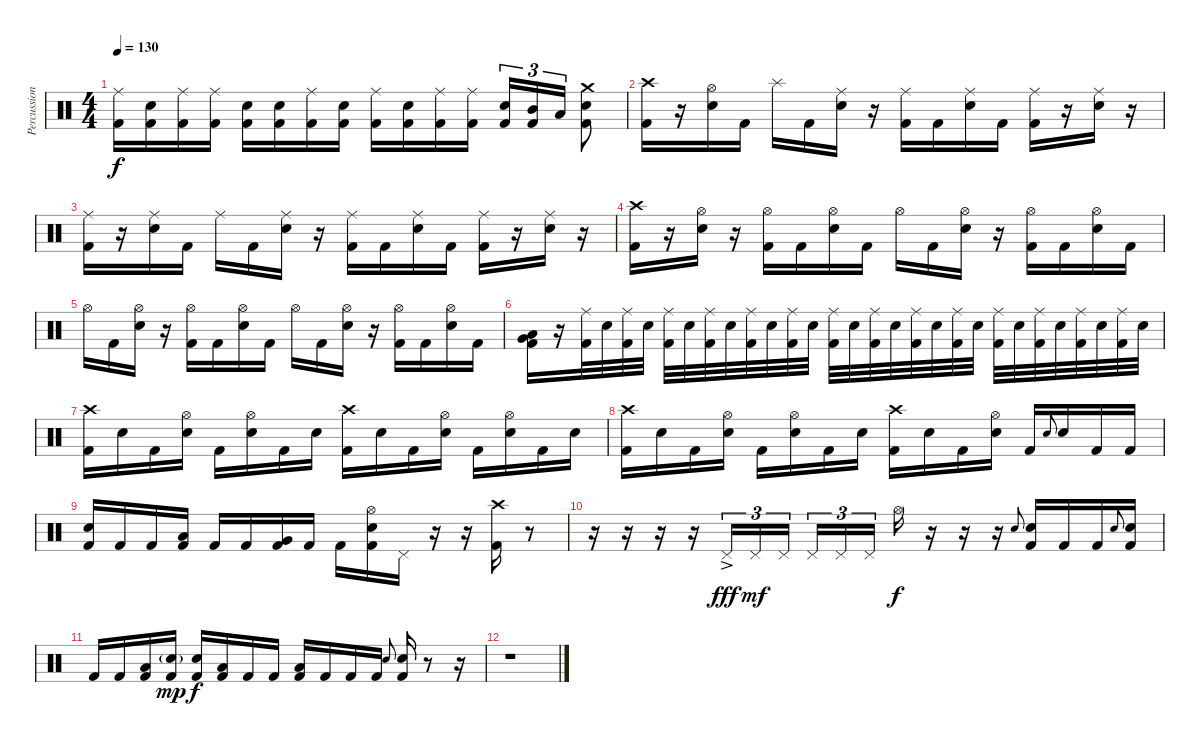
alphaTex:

\track ("Percussions" "Percussion") {instrument percussion}
\staff {score}
\articulation defaults
\ts (4 4)
\tempo 130
\clef neutral
\ks c
("Ride (middle)" "Kick (hit) 2").16{dy f} ("Electric Snare (hit)" "Kick (hit) 2").16 ("Ride (middle)" "Kick (hit) 2").16 ("Ride (middle)" "Kick (hit) 2").16 ("Electric Snare (hit)" "Kick (hit) 2").16 ("Electric Snare (hit)" "Kick (hit) 2").16 ("Ride (middle)" "Kick (hit) 2").16 ("Electric Snare (hit)" "Kick (hit) 2").16 ("Ride (middle)" "Kick (hit) 2").16 ("Electric Snare (hit)" "Kick (hit) 2").16 ("Ride (middle)" "Kick (hit) 2").16 ("Ride (middle)" "Kick (hit) 2").16 ("Electric Snare (hit)" "Kick (hit) 2").16{tu (3 2)} ("Mid Tom (hit)" "Kick (hit) 2").16{tu (3 2)} "Low Tom (hit)".16{tu (3 2)} ("Crash medium (hit)" "Electric Snare (hit)" "Kick (hit) 2").8 |
("Crash high (hit)" "Kick (hit) 2").16 r.16 ("Hi-Hat (open)" "Electric Snare (hit)").16 "Kick (hit) 2".16 "Splash (hit)".16 "Kick (hit) 2".16 ("Ride (middle)" "Electric Snare (hit)").16 r.16 ("Ride (middle)" "Kick (hit) 2").16 "Kick (hit) 2".16 ("Ride (middle)" "Electric Snare (hit)").16 "Kick (hit) 2".16 ("Ride (middle)" "Kick (hit) 2").16 r.16 ("Ride (middle)" "Electric Snare (hit)").16 r.16 |
("Ride (middle)" "Kick (hit) 2").16 r.16 ("Ride (middle)" "Electric Snare (hit)").16 "Kick (hit) 2".16 "Ride (middle)".16 "Kick (hit) 2".16 ("Ride (middle)" "Electric Snare (hit)").16 r.16 ("Ride (middle)" "Kick (hit) 2").16 "Kick (hit) 2".16 ("Ride (middle)" "Electric Snare (hit)").16 "Kick (hit) 2".16 ("Ride (middle)" "Kick (hit) 2").16 r.16 ("Ride (middle)" "Electric Snare (hit)").16 r.16 |
("Crash high (hit)" "Kick (hit) 2").16 r.16 ("Hi-Hat (open)" "Electric Snare (hit)").16 r.16 ("Hi-Hat (open)" "Kick (hit) 2").16 "Kick (hit) 2".16 ("Hi-Hat (open)" "Electric Snare (hit)").16 "Kick (hit) 2".16 "Hi-Hat (open)".16 "Kick (hit) 2".16 ("Hi-Hat (open)" "Electric Snare (hit)").16 r.16 ("Hi-Hat (open)" "Kick (hit) 2").16 "Kick (hit) 2".16 ("Hi-Hat (open)" "Electric Snare (hit)").16 "Kick (hit) 2".16 |
"Hi-Hat (open)".16 "Kick (hit) 2".16 ("Hi-Hat (open)" "Electric Snare (hit)").16 r.16 ("Hi-Hat (open)" "Kick (hit) 2").16 "Kick (hit) 2".16 ("Hi-Hat (open)" "Electric Snare (hit)").16 "Kick (hit) 2".16 "Hi-Hat (open)".16 "Kick (hit) 2".16 ("Hi-Hat (open)" "Electric Snare (hit)").16 r.16 ("Hi-Hat (open)" "Kick (hit) 2").16 "Kick (hit) 2".16 ("Hi-Hat (open)" "Electric Snare (hit)").16 "Kick (hit) 2".16 |
("Very Low Tom (hit)" "Low Floor Tom (hit)" "Kick (hit) 2").16 r.16 ("Ride (middle)" "Kick (hit) 2").32 "Electric Snare (hit)".32 ("Ride (middle)" "Kick (hit) 2").32 "Electric Snare (hit)".32 ("Ride (middle)" "Kick (hit) 2").32 "Electric Snare (hit)".32 ("Ride (middle)" "Kick (hit) 2").32 "Electric Snare (hit)".32 ("Ride (middle)" "Kick (hit) 2").32 "Electric Snare (hit)".32 ("Ride (middle)" "Kick (hit) 2").32 "Electric Snare (hit)".32 ("Ride (middle)" "Kick (hit) 2").32 "Electric Snare (hit)".32 ("Ride (middle)" "Kick (hit) 2").32 "Electric Snare (hit)".32 ("Ride (middle)" "Kick (hit) 2").32 "Electric Snare (hit)".32 ("Ride (middle)" "Kick (hit) 2").32 "Electric Snare (hit)".32 ("Ride (middle)" "Kick (hit) 2").32 "Electric Snare (hit)".32 ("Ride (middle)" "Kick (hit) 2").32 "Electric Snare (hit)".32 ("Ride (middle)" "Kick (hit) 2").32 "Electric Snare (hit)".32 ("Ride (middle)" "Kick (hit) 2").32 "Electric Snare (hit)".32 |
("Crash high (hit)" "Kick (hit) 2").16 "Electric Snare (hit)".16 "Kick (hit) 2".16 ("Hi-Hat (open)" "Electric Snare (hit)").16 "Kick (hit) 2".16 ("Hi-Hat (open)" "Electric Snare (hit)").16 "Kick (hit) 2".16 "Electric Snare (hit)".16 ("Crash high (hit)" "Kick (hit) 2").16 "Electric Snare (hit)".16 "Kick (hit) 2".16 ("Hi-Hat (open)" "Electric Snare (hit)").16 "Kick (hit) 2".16 ("Hi-Hat (open)" "Electric Snare (hit)").16 "Kick (hit) 2".16 "Electric Snare (hit)".16 |
("Crash high (hit)" "Kick (hit) 2").16 "Electric Snare (hit)".16 "Kick (hit) 2".16 ("Hi-Hat (open)" "Electric Snare (hit)").16 "Kick (hit) 2".16 ("Hi-Hat (open)" "Electric Snare (hit)").16 "Kick (hit) 2".16 "Electric Snare (hit)".16 ("Crash high (hit)" "Kick (hit) 2").16 "Electric Snare (hit)".16 "Kick (hit) 2".16 ("Hi-Hat (open)" "Electric Snare (hit)").16 "Kick (hit) 2".16 "Electric Snare (hit)".8{gr onbeat} "Electric Snare (hit)".16 "Kick (hit) 2".16 "Kick (hit) 2".16 |
("Electric Snare (hit)" "Kick (hit) 2").16 "Kick (hit) 2".16 "Kick (hit) 2".16 ("Low Tom (hit)" "Kick (hit) 2").16 "Kick (hit) 2".16 "Kick (hit) 2".16 ("Very Low Tom (hit)" "Kick (hit) 2").16 "Kick (hit) 2".16 "Kick (hit) 2".16 ("Hi-Hat (open)" "Electric Snare (hit)" "Kick (hit) 2").16 "Pedal Hi-Hat (hit)".16 r.16 r.16 ("Crash high (hit)" "Kick (hit) 2").16 r.8 |
r.16 r.16 r.16 r.16 "Pedal Hi-Hat (hit)"{ac}.16{tu (3 2) dy fff} "Pedal Hi-Hat (hit)".16{tu (3 2) dy mf} "Pedal Hi-Hat (hit)".16{tu (3 2) beam splitsecondary} "Pedal Hi-Hat (hit)".16{tu (3 2)} "Pedal Hi-Hat (hit)".16{tu (3 2)} "Pedal Hi-Hat (hit)".16{tu (3 2)} "Hi-Hat (open)".16{dy f} r.16 r.16 r.16 "Electric Snare (hit)".8{gr onbeat} ("Electric Snare (hit)" "Kick (hit) 2").16 "Kick (hit) 2".16 "Kick (hit) 2".16 "Electric Snare (hit)".8{gr onbeat} ("Electric Snare (hit)" "Kick (hit) 2").16 |
"Kick (hit) 2".16 "Kick (hit) 2".16 ("Low Tom (hit)" "Kick (hit) 2").16 ("Electric Snare (hit)"{g} "Kick (hit) 2").16{dy mp} ("Electric Snare (hit)" "Kick (hit) 2").16{dy f} ("Low Tom (hit)" "Kick (hit) 2").16 "Kick (hit) 2".16 "Kick (hit) 2".16 ("Low Floor Tom (hit)" "Kick (hit) 2").16 "Kick (hit) 2".16 "Kick (hit) 2".16 "Kick (hit) 2".16 "Electric Snare (hit)".8{gr onbeat} ("Electric Snare (hit)" "Kick (hit) 2").16 r.8 r.16 |
r.1
